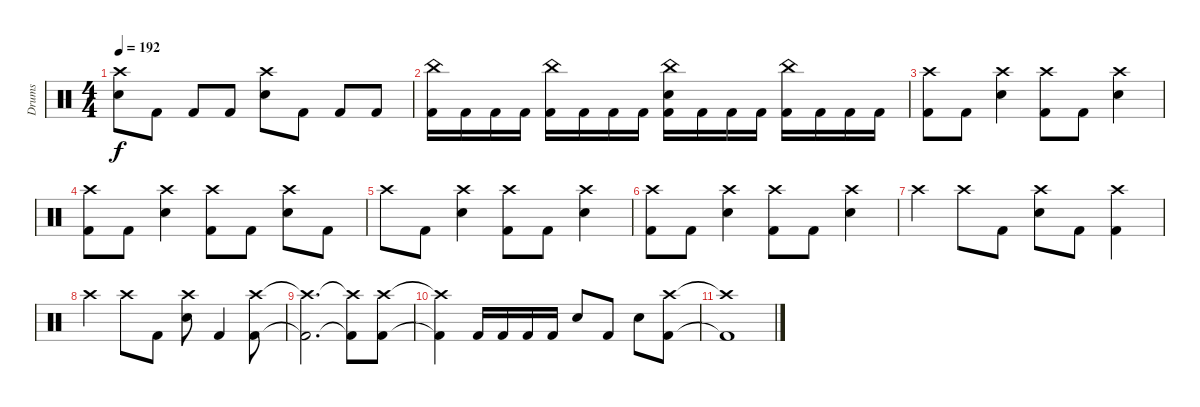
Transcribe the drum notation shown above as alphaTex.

\track ("Drums" "Drums") {instrument percussion}
\staff {score}
\articulation defaults
\ts (4 4)
\tempo 192
\clef neutral
\ks c
("Crash high (hit)" "Electric Snare (hit)").8{dy f} "Kick (hit) 2".8 "Kick (hit) 2".8 "Kick (hit) 2".8 ("Crash high (hit)" "Electric Snare (hit)").8 "Kick (hit) 2".8 "Kick (hit) 2".8 "Kick (hit) 2".8 |
("China (hit)" "Kick (hit) 2").16 "Kick (hit) 2".16 "Kick (hit) 2".16 "Kick (hit) 2".16 ("China (hit)" "Kick (hit) 2").16 "Kick (hit) 2".16 "Kick (hit) 2".16 "Kick (hit) 2".16 ("China (hit)" "Electric Snare (hit)" "Kick (hit) 2").16 "Kick (hit) 2".16 "Kick (hit) 2".16 "Kick (hit) 2".16 ("China (hit)" "Kick (hit) 2").16 "Kick (hit) 2".16 "Kick (hit) 2".16 "Kick (hit) 2".16 |
("Crash high (hit)" "Kick (hit) 2").8 "Kick (hit) 2".8 ("Crash high (hit)" "Electric Snare (hit)").4 ("Crash high (hit)" "Kick (hit) 2").8 "Kick (hit) 2".8 ("Crash high (hit)" "Electric Snare (hit)").4 |
("Crash high (hit)" "Kick (hit) 2").8 "Kick (hit) 2".8 ("Crash high (hit)" "Electric Snare (hit)").4 ("Crash high (hit)" "Kick (hit) 2").8 "Kick (hit) 2".8 ("Crash high (hit)" "Electric Snare (hit)").8 "Kick (hit) 2".8 |
"Crash high (hit)".8 "Kick (hit) 2".8 ("Crash high (hit)" "Electric Snare (hit)").4 ("Crash high (hit)" "Kick (hit) 2").8 "Kick (hit) 2".8 ("Crash high (hit)" "Electric Snare (hit)").4 |
("Crash high (hit)" "Kick (hit) 2").8 "Kick (hit) 2".8 ("Crash high (hit)" "Electric Snare (hit)").4 ("Crash high (hit)" "Kick (hit) 2").8 "Kick (hit) 2".8 ("Crash high (hit)" "Electric Snare (hit)").4 |
"Crash high (hit)".4 "Crash high (hit)".8 "Kick (hit) 2".8 ("Crash high (hit)" "Electric Snare (hit)").8 "Kick (hit) 2".8 ("Crash high (hit)" "Kick (hit) 2").4 |
"Crash high (hit)".4 "Crash high (hit)".8 "Kick (hit) 2".8 ("Crash high (hit)" "Electric Snare (hit)").8 "Kick (hit) 2".4 ("Crash high (hit)" "Kick (hit) 2").8 |
("Crash high (hit)"{t} "Kick (hit) 2"{t}).2{d} ("Crash high (hit)"{t} "Kick (hit) 2"{t}).8 ("Crash high (hit)" "Kick (hit) 2").8 |
("Crash high (hit)"{t} "Kick (hit) 2"{t}).4 "Kick (hit) 2".16 "Kick (hit) 2".16 "Kick (hit) 2".16 "Kick (hit) 2".16 "Electric Snare (hit)".8 "Kick (hit) 2".8 "Electric Snare (hit)".8 ("Crash high (hit)" "Kick (hit) 2").8 |
("Crash high (hit)"{t} "Kick (hit) 2"{t}).1
